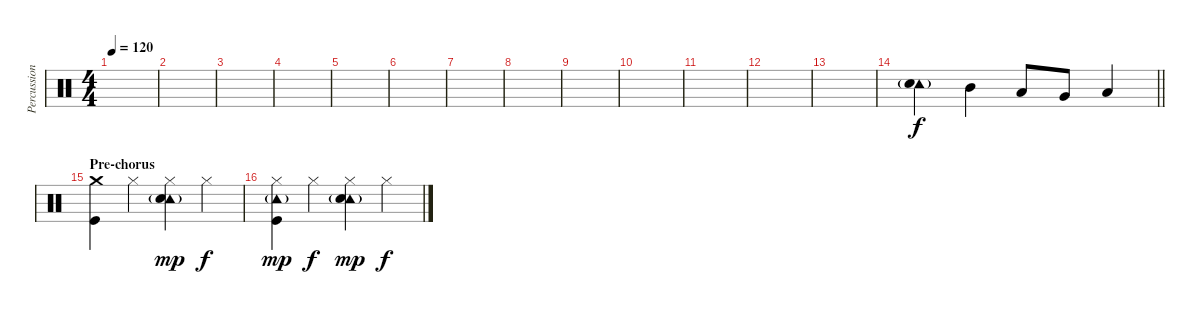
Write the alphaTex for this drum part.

\track ("Percussioni" "Percussion") {instrument percussion}
\staff {score}
\articulation defaults
\ts (4 4)
\tempo 120
\clef neutral
\ks c
|
|
|
|
|
|
|
|
|
|
|
|
|
\barLineRight lightlight
("Tambourine (hit)"{g} "Snare (hit) 2").4 "Mid Tom (hit)".4{dy f} "Low Tom (hit)".8 "Very Low Tom (hit)".8 "Low Floor Tom (hit)".4 |
\section ("" "Pre-chorus")
("Crash medium (hit)" "Kick (hit)").4 "Hi-Hat (closed)".4 ("Tambourine (hit)"{g} "Hi-Hat (closed)" "Snare (hit) 2").4{dy mp} "Hi-Hat (closed)".4{dy f} |
("Tambourine (hit)"{g} "Hi-Hat (closed)" "Kick (hit)").4{dy mp} "Hi-Hat (closed)".4{dy f} ("Tambourine (hit)"{g} "Hi-Hat (closed)" "Snare (hit) 2").4{dy mp} "Hi-Hat (closed)".4{dy f}
